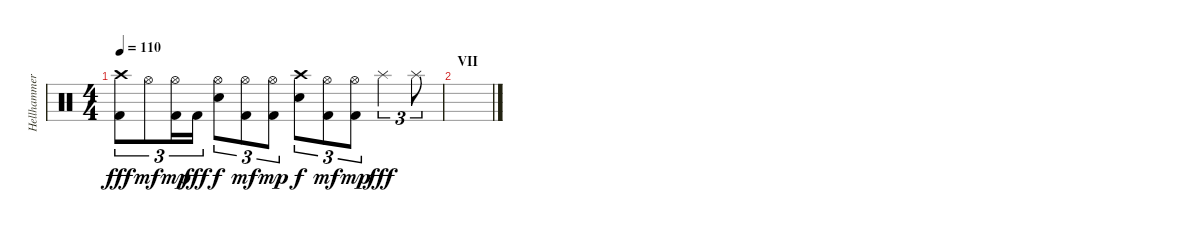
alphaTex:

\track ("Hellhammer" "Hellhammer") {instrument percussion}
\staff {score}
\articulation defaults
\ts (4 4)
\tempo 110
\clef neutral
\ks c
("Kick (hit) 2" "Crash high (hit)").8{tu (3 2) dy fff} "Hi-Hat (open)".8{tu (3 2) dy mf} ("Kick (hit) 2" "Hi-Hat (open)").16{tu (3 2) dy mp} "Kick (hit) 2".16{tu (3 2) dy fff} ("Electric Snare (hit)" "Hi-Hat (open)").8{tu (3 2) dy f} ("Kick (hit) 2" "Hi-Hat (open)").8{tu (3 2) dy mf} ("Kick (hit) 2" "Hi-Hat (open)").8{tu (3 2) dy mp} ("Electric Snare (hit)" "Crash high (hit)").8{tu (3 2) dy f} ("Kick (hit) 2" "Hi-Hat (open)").8{tu (3 2) dy mf} ("Kick (hit) 2" "Hi-Hat (open)").8{tu (3 2) dy mp} "Splash (hit)".4{tu (3 2) dy fff} "Splash (hit)".8{tu (3 2)} |
\section ("" "VII")
